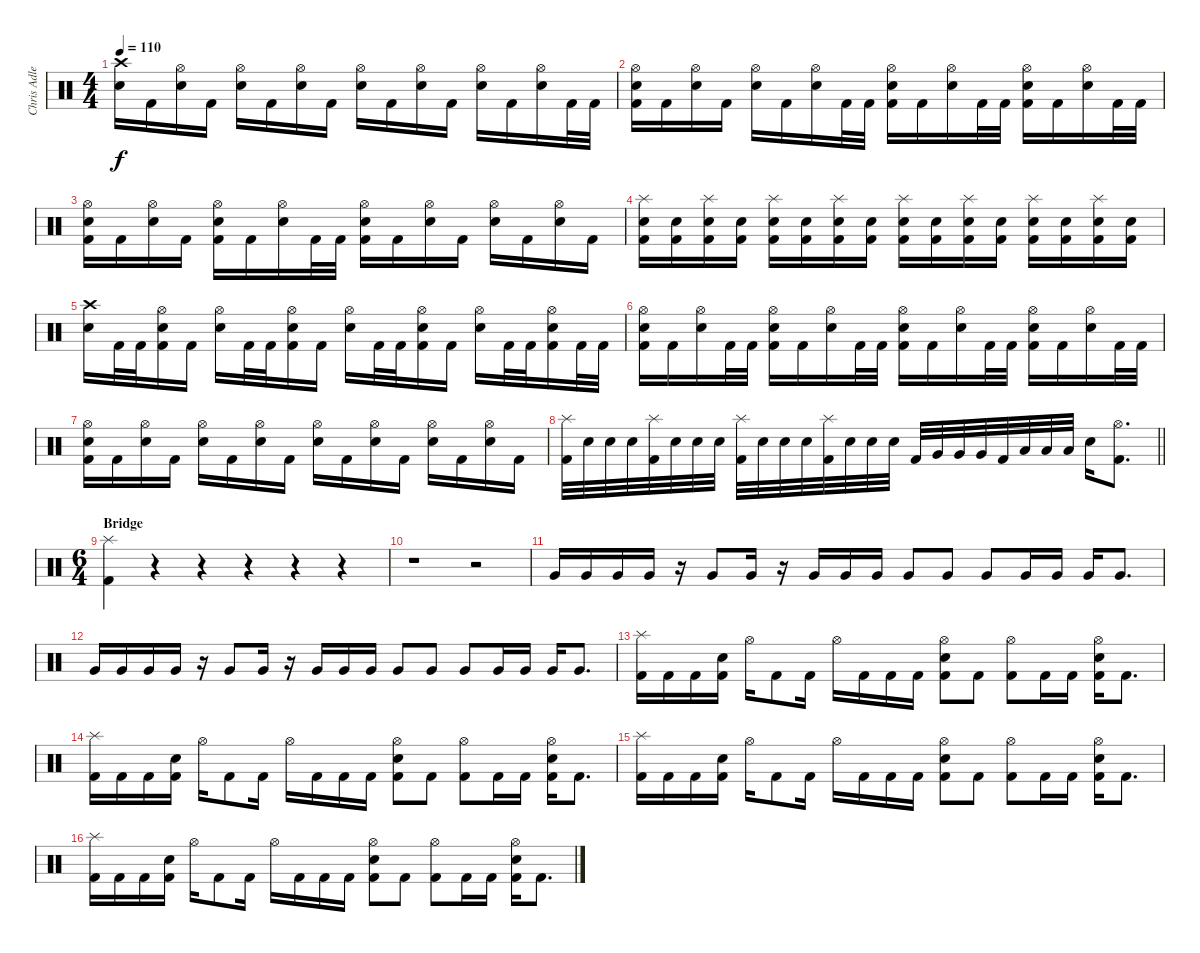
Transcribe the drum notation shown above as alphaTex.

\track ("Chris Adler" "Chris Adle") {instrument percussion}
\staff {score}
\articulation defaults
\ts (4 4)
\tempo 110
\clef neutral
\ks c
("Crash high (hit)" "Electric Snare (hit)").16{dy f} "Kick (hit) 2".16 ("Hi-Hat (open)" "Electric Snare (hit)").16 "Kick (hit) 2".16 ("Hi-Hat (open)" "Electric Snare (hit)").16 "Kick (hit) 2".16 ("Hi-Hat (open)" "Electric Snare (hit)").16 "Kick (hit) 2".16 ("Hi-Hat (open)" "Electric Snare (hit)").16 "Kick (hit) 2".16 ("Hi-Hat (open)" "Electric Snare (hit)").16 "Kick (hit) 2".16 ("Hi-Hat (open)" "Electric Snare (hit)").16 "Kick (hit) 2".16 ("Hi-Hat (open)" "Electric Snare (hit)").16 "Kick (hit) 2".32 "Kick (hit) 2".32 |
("Hi-Hat (open)" "Electric Snare (hit)" "Kick (hit) 2").16 "Kick (hit) 2".16 ("Hi-Hat (open)" "Electric Snare (hit)").16 "Kick (hit) 2".16 ("Hi-Hat (open)" "Electric Snare (hit)").16 "Kick (hit) 2".16 ("Hi-Hat (open)" "Electric Snare (hit)").16 "Kick (hit) 2".32 "Kick (hit) 2".32 ("Hi-Hat (open)" "Electric Snare (hit)" "Kick (hit) 2").16 "Kick (hit) 2".16 ("Hi-Hat (open)" "Electric Snare (hit)").16 "Kick (hit) 2".32 "Kick (hit) 2".32 ("Hi-Hat (open)" "Electric Snare (hit)" "Kick (hit) 2").16 "Kick (hit) 2".16 ("Hi-Hat (open)" "Electric Snare (hit)").16 "Kick (hit) 2".32 "Kick (hit) 2".32 |
("Hi-Hat (open)" "Electric Snare (hit)" "Kick (hit) 2").16 "Kick (hit) 2".16 ("Hi-Hat (open)" "Electric Snare (hit)").16 "Kick (hit) 2".16 ("Hi-Hat (open)" "Electric Snare (hit)" "Kick (hit) 2").16 "Kick (hit) 2".16 ("Hi-Hat (open)" "Electric Snare (hit)").16 "Kick (hit) 2".32 "Kick (hit) 2".32 ("Hi-Hat (open)" "Electric Snare (hit)" "Kick (hit) 2").16 "Kick (hit) 2".16 ("Hi-Hat (open)" "Electric Snare (hit)").16 "Kick (hit) 2".16 ("Hi-Hat (open)" "Electric Snare (hit)").16 "Kick (hit) 2".16 ("Hi-Hat (open)" "Electric Snare (hit)").16 "Kick (hit) 2".16 |
("Splash (hit)" "Electric Snare (hit)" "Kick (hit) 2").16 ("Electric Snare (hit)" "Kick (hit) 2").16 ("Splash (hit)" "Electric Snare (hit)" "Kick (hit) 2").16 ("Electric Snare (hit)" "Kick (hit) 2").16 ("Splash (hit)" "Electric Snare (hit)" "Kick (hit) 2").16 ("Electric Snare (hit)" "Kick (hit) 2").16 ("Splash (hit)" "Electric Snare (hit)" "Kick (hit) 2").16 ("Electric Snare (hit)" "Kick (hit) 2").16 ("Splash (hit)" "Electric Snare (hit)" "Kick (hit) 2").16 ("Electric Snare (hit)" "Kick (hit) 2").16 ("Splash (hit)" "Electric Snare (hit)" "Kick (hit) 2").16 ("Electric Snare (hit)" "Kick (hit) 2").16 ("Splash (hit)" "Electric Snare (hit)" "Kick (hit) 2").16 ("Electric Snare (hit)" "Kick (hit) 2").16 ("Splash (hit)" "Electric Snare (hit)" "Kick (hit) 2").16 ("Electric Snare (hit)" "Kick (hit) 2").16 |
("Crash high (hit)" "Electric Snare (hit)").16 "Kick (hit) 2".32 "Kick (hit) 2".32 ("Hi-Hat (open)" "Electric Snare (hit)" "Kick (hit) 2").16 "Kick (hit) 2".16 ("Hi-Hat (open)" "Electric Snare (hit)").16 "Kick (hit) 2".32 "Kick (hit) 2".32 ("Hi-Hat (open)" "Electric Snare (hit)" "Kick (hit) 2").16 "Kick (hit) 2".16 ("Hi-Hat (open)" "Electric Snare (hit)").16 "Kick (hit) 2".32 "Kick (hit) 2".32 ("Hi-Hat (open)" "Electric Snare (hit)" "Kick (hit) 2").16 "Kick (hit) 2".16 ("Hi-Hat (open)" "Electric Snare (hit)").16 "Kick (hit) 2".32 "Kick (hit) 2".32 ("Hi-Hat (open)" "Electric Snare (hit)" "Kick (hit) 2").16 "Kick (hit) 2".32 "Kick (hit) 2".32 |
("Hi-Hat (open)" "Electric Snare (hit)" "Kick (hit) 2").16 "Kick (hit) 2".16 ("Hi-Hat (open)" "Electric Snare (hit)").16 "Kick (hit) 2".32 "Kick (hit) 2".32 ("Hi-Hat (open)" "Electric Snare (hit)" "Kick (hit) 2").16 "Kick (hit) 2".16 ("Hi-Hat (open)" "Electric Snare (hit)").16 "Kick (hit) 2".32 "Kick (hit) 2".32 ("Hi-Hat (open)" "Electric Snare (hit)" "Kick (hit) 2").16 "Kick (hit) 2".16 ("Hi-Hat (open)" "Electric Snare (hit)").16 "Kick (hit) 2".32 "Kick (hit) 2".32 ("Hi-Hat (open)" "Electric Snare (hit)" "Kick (hit) 2").16 "Kick (hit) 2".16 ("Hi-Hat (open)" "Electric Snare (hit)").16 "Kick (hit) 2".32 "Kick (hit) 2".32 |
("Hi-Hat (open)" "Electric Snare (hit)" "Kick (hit) 2").16 "Kick (hit) 2".16 ("Hi-Hat (open)" "Electric Snare (hit)").16 "Kick (hit) 2".16 ("Hi-Hat (open)" "Electric Snare (hit)").16 "Kick (hit) 2".16 ("Hi-Hat (open)" "Electric Snare (hit)").16 "Kick (hit) 2".16 ("Hi-Hat (open)" "Electric Snare (hit)").16 "Kick (hit) 2".16 ("Hi-Hat (open)" "Electric Snare (hit)").16 "Kick (hit) 2".16 ("Hi-Hat (open)" "Electric Snare (hit)").16 "Kick (hit) 2".16 ("Hi-Hat (open)" "Electric Snare (hit)").16 "Kick (hit) 2".16 |
\barLineRight lightlight
("Splash (hit)" "Kick (hit) 2").32 "Electric Snare (hit)".32 "Electric Snare (hit)".32 "Electric Snare (hit)".32 ("Splash (hit)" "Kick (hit) 2").32 "Electric Snare (hit)".32 "Electric Snare (hit)".32 "Electric Snare (hit)".32 ("Splash (hit)" "Kick (hit) 2").32 "Electric Snare (hit)".32 "Electric Snare (hit)".32 "Electric Snare (hit)".32 ("Splash (hit)" "Kick (hit) 2").32 "Electric Snare (hit)".32 "Electric Snare (hit)".32 "Electric Snare (hit)".32 "Kick (hit) 2".32 "Very Low Tom (hit)".32 "Very Low Tom (hit)".32 "Very Low Tom (hit)".32 "Kick (hit) 2".32 "Low Floor Tom (hit)".32 "Low Floor Tom (hit)".32 "Low Floor Tom (hit)".32 "Electric Snare (hit)".16 ("Hi-Hat (open)" "Kick (hit) 2").8{d} |
\ts (6 4)
\section ("" "Bridge")
("Splash (hit)" "Kick (hit) 2").4 r.4 r.4 r.4 r.4 r.4 |
r.1 r.2 |
"Very Low Tom (hit)".16 "Very Low Tom (hit)".16 "Very Low Tom (hit)".16 "Very Low Tom (hit)".16 r.16 "Very Low Tom (hit)".8 "Very Low Tom (hit)".16 r.16 "Very Low Tom (hit)".16 "Very Low Tom (hit)".16 "Very Low Tom (hit)".16 "Very Low Tom (hit)".8 "Very Low Tom (hit)".8 "Very Low Tom (hit)".8 "Very Low Tom (hit)".16 "Very Low Tom (hit)".16 "Very Low Tom (hit)".16 "Very Low Tom (hit)".8{d} |
"Very Low Tom (hit)".16 "Very Low Tom (hit)".16 "Very Low Tom (hit)".16 "Very Low Tom (hit)".16 r.16 "Very Low Tom (hit)".8 "Very Low Tom (hit)".16 r.16 "Very Low Tom (hit)".16 "Very Low Tom (hit)".16 "Very Low Tom (hit)".16 "Very Low Tom (hit)".8 "Very Low Tom (hit)".8 "Very Low Tom (hit)".8 "Very Low Tom (hit)".16 "Very Low Tom (hit)".16 "Very Low Tom (hit)".16 "Very Low Tom (hit)".8{d} |
("Splash (hit)" "Kick (hit) 2").16 "Kick (hit) 2".16 "Kick (hit) 2".16 ("Electric Snare (hit)" "Kick (hit) 2").16 "Hi-Hat (open)".16 "Kick (hit) 2".8 "Kick (hit) 2".16 "Hi-Hat (open)".16 "Kick (hit) 2".16 "Kick (hit) 2".16 "Kick (hit) 2".16 ("Hi-Hat (open)" "Electric Snare (hit)" "Kick (hit) 2").8 "Kick (hit) 2".8 ("Hi-Hat (open)" "Kick (hit) 2").8 "Kick (hit) 2".16 "Kick (hit) 2".16 ("Hi-Hat (open)" "Electric Snare (hit)" "Kick (hit) 2").16 "Kick (hit) 2".8{d} |
("Splash (hit)" "Kick (hit) 2").16 "Kick (hit) 2".16 "Kick (hit) 2".16 ("Electric Snare (hit)" "Kick (hit) 2").16 "Hi-Hat (open)".16 "Kick (hit) 2".8 "Kick (hit) 2".16 "Hi-Hat (open)".16 "Kick (hit) 2".16 "Kick (hit) 2".16 "Kick (hit) 2".16 ("Hi-Hat (open)" "Electric Snare (hit)" "Kick (hit) 2").8 "Kick (hit) 2".8 ("Hi-Hat (open)" "Kick (hit) 2").8 "Kick (hit) 2".16 "Kick (hit) 2".16 ("Hi-Hat (open)" "Electric Snare (hit)" "Kick (hit) 2").16 "Kick (hit) 2".8{d} |
("Splash (hit)" "Kick (hit) 2").16 "Kick (hit) 2".16 "Kick (hit) 2".16 ("Electric Snare (hit)" "Kick (hit) 2").16 "Hi-Hat (open)".16 "Kick (hit) 2".8 "Kick (hit) 2".16 "Hi-Hat (open)".16 "Kick (hit) 2".16 "Kick (hit) 2".16 "Kick (hit) 2".16 ("Hi-Hat (open)" "Electric Snare (hit)" "Kick (hit) 2").8 "Kick (hit) 2".8 ("Hi-Hat (open)" "Kick (hit) 2").8 "Kick (hit) 2".16 "Kick (hit) 2".16 ("Hi-Hat (open)" "Electric Snare (hit)" "Kick (hit) 2").16 "Kick (hit) 2".8{d} |
("Splash (hit)" "Kick (hit) 2").16 "Kick (hit) 2".16 "Kick (hit) 2".16 ("Electric Snare (hit)" "Kick (hit) 2").16 "Hi-Hat (open)".16 "Kick (hit) 2".8 "Kick (hit) 2".16 "Hi-Hat (open)".16 "Kick (hit) 2".16 "Kick (hit) 2".16 "Kick (hit) 2".16 ("Hi-Hat (open)" "Electric Snare (hit)" "Kick (hit) 2").8 "Kick (hit) 2".8 ("Hi-Hat (open)" "Kick (hit) 2").8 "Kick (hit) 2".16 "Kick (hit) 2".16 ("Hi-Hat (open)" "Electric Snare (hit)" "Kick (hit) 2").16 "Kick (hit) 2".8{d}
